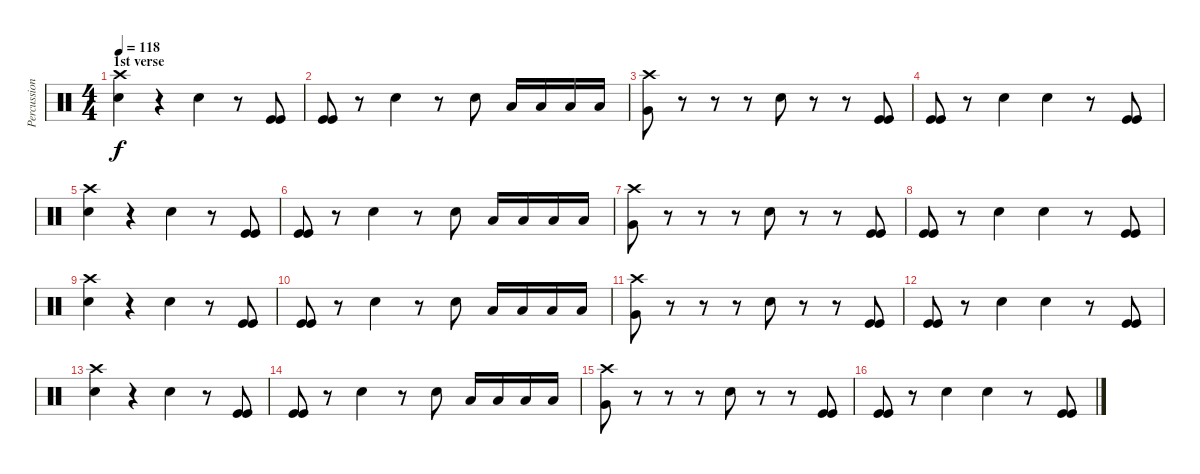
\track ("Percussion" "Percussion") {instrument percussion}
\staff {score}
\articulation defaults
\ts (4 4)
\section ("" "1st verse")
\tempo 118
\clef neutral
\ks c
("Crash high (hit)" "Electric Snare (hit)").4{dy f} r.4 "Electric Snare (hit)".4 r.8 ("Kick (hit)" "Kick (hit)").8 |
("Kick (hit)" "Kick (hit)").8 r.8 "Electric Snare (hit)".4 r.8 "Electric Snare (hit)".8 "Low Tom (hit)".16 "Low Floor Tom (hit)".16 "Low Tom (hit)".16 "Low Floor Tom (hit)".16 |
("Crash high (hit)" "Very Low Tom (hit)").8 r.8 r.8 r.8 "Electric Snare (hit)".8 r.8 r.8 ("Kick (hit)" "Kick (hit)").8 |
("Kick (hit)" "Kick (hit)").8 r.8 "Electric Snare (hit)".4 "Electric Snare (hit)".4 r.8 ("Kick (hit)" "Kick (hit)").8 |
("Crash high (hit)" "Electric Snare (hit)").4 r.4 "Electric Snare (hit)".4 r.8 ("Kick (hit)" "Kick (hit)").8 |
("Kick (hit)" "Kick (hit)").8 r.8 "Electric Snare (hit)".4 r.8 "Electric Snare (hit)".8 "Low Tom (hit)".16 "Low Floor Tom (hit)".16 "Low Tom (hit)".16 "Low Floor Tom (hit)".16 |
("Crash high (hit)" "Very Low Tom (hit)").8 r.8 r.8 r.8 "Electric Snare (hit)".8 r.8 r.8 ("Kick (hit)" "Kick (hit)").8 |
("Kick (hit)" "Kick (hit)").8 r.8 "Electric Snare (hit)".4 "Electric Snare (hit)".4 r.8 ("Kick (hit)" "Kick (hit)").8 |
("Crash high (hit)" "Electric Snare (hit)").4 r.4 "Electric Snare (hit)".4 r.8 ("Kick (hit)" "Kick (hit)").8 |
("Kick (hit)" "Kick (hit)").8 r.8 "Electric Snare (hit)".4 r.8 "Electric Snare (hit)".8 "Low Tom (hit)".16 "Low Floor Tom (hit)".16 "Low Tom (hit)".16 "Low Floor Tom (hit)".16 |
("Crash high (hit)" "Very Low Tom (hit)").8 r.8 r.8 r.8 "Electric Snare (hit)".8 r.8 r.8 ("Kick (hit)" "Kick (hit)").8 |
("Kick (hit)" "Kick (hit)").8 r.8 "Electric Snare (hit)".4 "Electric Snare (hit)".4 r.8 ("Kick (hit)" "Kick (hit)").8 |
("Crash high (hit)" "Electric Snare (hit)").4 r.4 "Electric Snare (hit)".4 r.8 ("Kick (hit)" "Kick (hit)").8 |
("Kick (hit)" "Kick (hit)").8 r.8 "Electric Snare (hit)".4 r.8 "Electric Snare (hit)".8 "Low Tom (hit)".16 "Low Floor Tom (hit)".16 "Low Tom (hit)".16 "Low Floor Tom (hit)".16 |
("Crash high (hit)" "Very Low Tom (hit)").8 r.8 r.8 r.8 "Electric Snare (hit)".8 r.8 r.8 ("Kick (hit)" "Kick (hit)").8 |
("Kick (hit)" "Kick (hit)").8 r.8 "Electric Snare (hit)".4 "Electric Snare (hit)".4 r.8 ("Kick (hit)" "Kick (hit)").8
